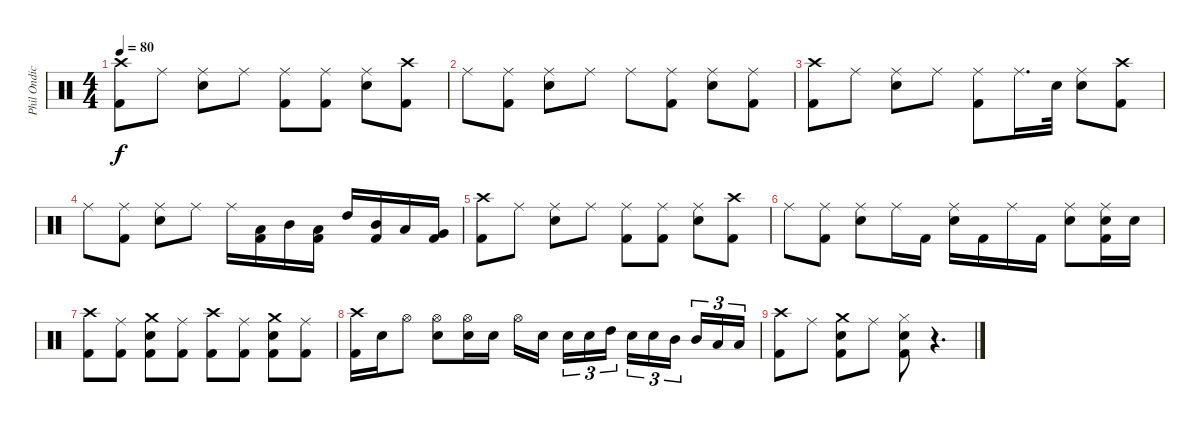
\track ("Phil Ondich Drums" "Phil Ondic") {instrument percussion}
\staff {score}
\articulation defaults
\ts (4 4)
\tempo 80
\clef neutral
\ks c
("Crash high (hit)" "Kick (hit) 2").8{dy f} "Ride (middle)".8 ("Ride (middle)" "Snare (hit) 2").8 "Ride (middle)".8 ("Ride (middle)" "Kick (hit) 2").8 ("Ride (middle)" "Kick (hit) 2").8 ("Ride (middle)" "Snare (hit) 2").8 ("Crash high (hit)" "Kick (hit) 2").8 |
"Ride (middle)".8 ("Ride (middle)" "Kick (hit) 2").8 ("Ride (middle)" "Snare (hit) 2").8 "Ride (middle)".8 "Ride (middle)".8 ("Ride (middle)" "Kick (hit) 2").8 ("Ride (middle)" "Snare (hit) 2").8 ("Ride (middle)" "Kick (hit) 2").8 |
("Crash high (hit)" "Kick (hit) 2").8 "Ride (middle)".8 ("Ride (middle)" "Snare (hit) 2").8 "Ride (middle)".8 ("Ride (middle)" "Kick (hit) 2").8 "Ride (middle)".16{d} "Snare (hit) 2".32 ("Ride (middle)" "Snare (hit) 2").8 ("Crash high (hit)" "Kick (hit) 2").8 |
"Ride (middle)".8 ("Ride (middle)" "Kick (hit) 2").8 ("Ride (middle)" "Snare (hit) 2").8 "Ride (middle)".8 "Ride (middle)".16 ("Low Tom (hit)" "Kick (hit) 2").16 "Mid Tom (hit)".16 ("Low Tom (hit)" "Kick (hit) 2").16 "High Tom (hit)".16 ("Mid Tom (hit)" "Kick (hit) 2").16 "Low Tom (hit)".16 ("Very Low Tom (hit)" "Kick (hit) 2").16 |
("Crash high (hit)" "Kick (hit) 2").8 "Ride (middle)".8 ("Ride (middle)" "Snare (hit) 2").8 "Ride (middle)".8 ("Ride (middle)" "Kick (hit) 2").8 ("Ride (middle)" "Kick (hit) 2").8 ("Ride (middle)" "Snare (hit) 2").8 ("Crash high (hit)" "Kick (hit) 2").8 |
"Ride (middle)".8 ("Ride (middle)" "Kick (hit) 2").8 ("Ride (middle)" "Snare (hit) 2").8 "Ride (middle)".16 "Kick (hit) 2".16 ("Ride (middle)" "Snare (hit) 2").16 "Kick (hit) 2".16 "Ride (middle)".16 "Kick (hit) 2".16 ("Ride (middle)" "Snare (hit) 2").8 ("Ride (middle)" "Snare (hit) 2" "Kick (hit) 2").16 "Snare (hit) 2".16 |
("Crash high (hit)" "Kick (hit) 2").8 ("Ride (middle)" "Kick (hit) 2").8 ("Crash medium (hit)" "Snare (hit) 2" "Kick (hit) 2").8 ("Ride (middle)" "Kick (hit) 2").8 ("Crash high (hit)" "Kick (hit) 2").8 ("Ride (middle)" "Kick (hit) 2").8 ("Crash medium (hit)" "Snare (hit) 2" "Kick (hit) 2").8 ("Ride (middle)" "Kick (hit) 2").8 |
("Crash high (hit)" "Kick (hit) 2").16 "Snare (hit) 2".16 "Hi-Hat (open)".8 ("Hi-Hat (open)" "Snare (hit) 2").8 ("Hi-Hat (open)" "Snare (hit) 2").16 "Snare (hit) 2".16 "Hi-Hat (open)".16 "Snare (hit) 2".16{beam splitsecondary} "Snare (hit) 2".16{tu (3 2)} "Snare (hit) 2".16{tu (3 2)} "High Tom (hit)".16{tu (3 2)} "Snare (hit) 2".16{tu (3 2)} "Snare (hit) 2".16{tu (3 2)} "Mid Tom (hit)".16{tu (3 2) beam splitsecondary} "Mid Tom (hit)".16{tu (3 2)} "Low Tom (hit)".16{tu (3 2)} "Low Tom (hit)".16{tu (3 2)} |
("Crash high (hit)" "Kick (hit) 2").8 "Ride (middle)".8 ("Crash medium (hit)" "Snare (hit) 2" "Kick (hit) 2").8 "Ride (middle)".8 ("Hi-Hat (closed)" "Snare (hit) 2" "Kick (hit) 2").8 r.4{d}
